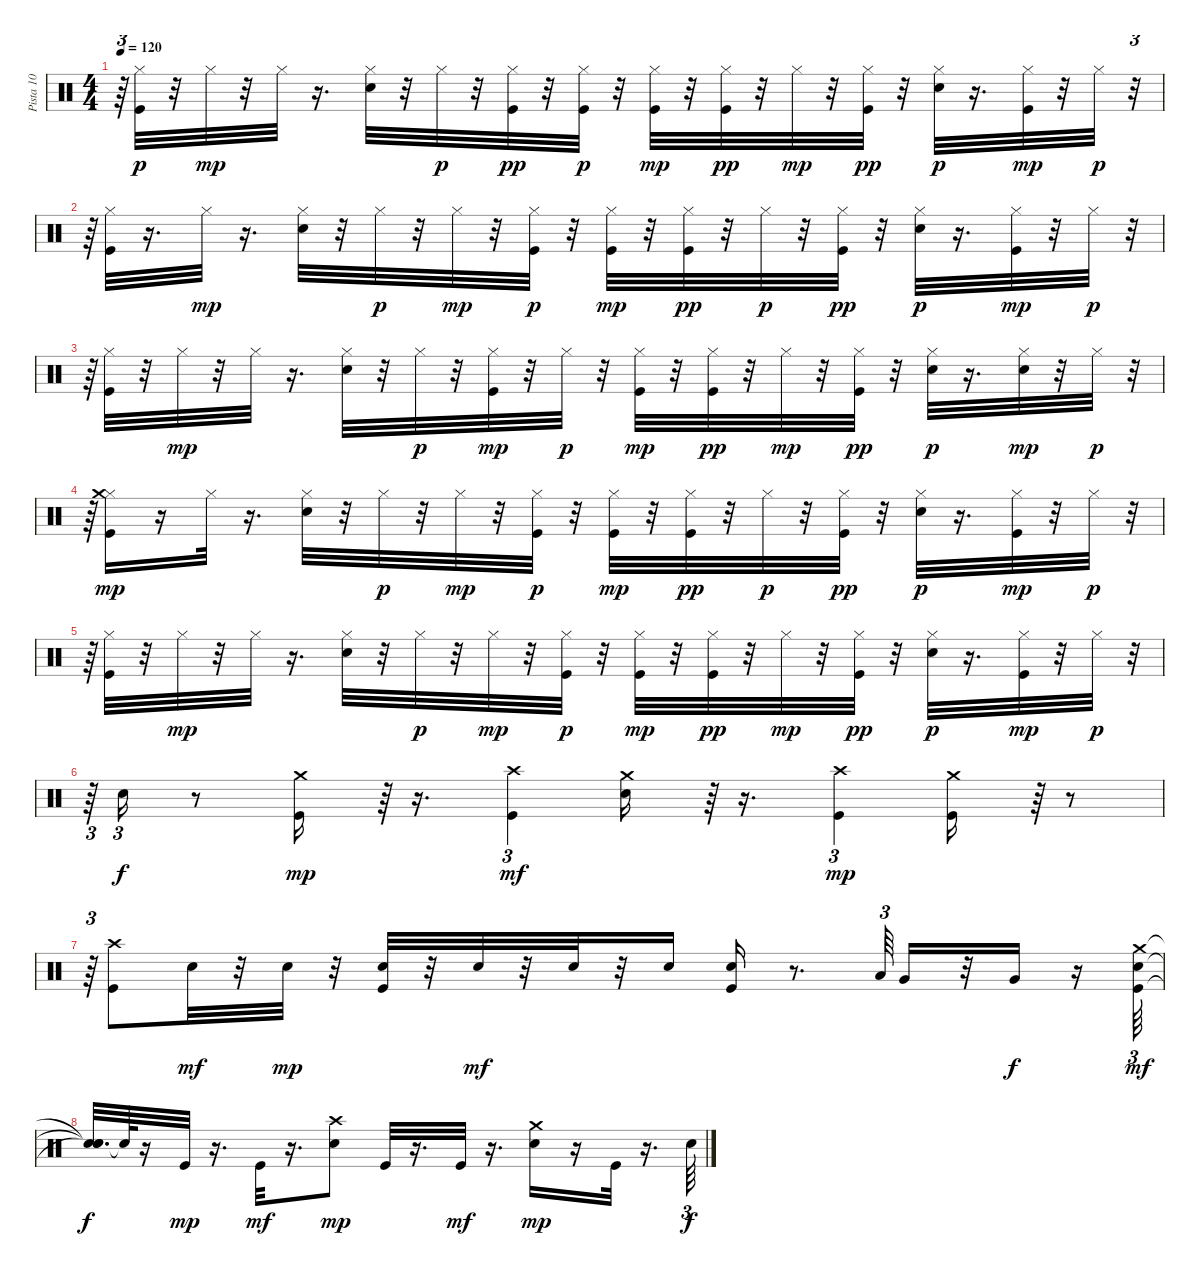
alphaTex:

\track ("Pista 10" "Pista 10") {instrument percussion}
\staff {score}
\articulation defaults
\ts (4 4)
\tempo 120
\clef neutral
\ks c
r.64{tu (3 2) dy p} ("Kick (hit)" "Hi-Hat (closed)").32 r.32 "Hi-Hat (closed)".32{dy mp} r.32 "Hi-Hat (closed)".32 r.16{d} ("Hi-Hat (closed)" "Snare (hit) 2").32 r.32 "Hi-Hat (closed)".32{dy p} r.32 ("Hi-Hat (closed)" "Kick (hit)").32{dy pp} r.32 ("Kick (hit)" "Hi-Hat (closed)").32{dy p} r.32 ("Kick (hit)" "Hi-Hat (closed)").32{dy mp} r.32 ("Hi-Hat (closed)" "Kick (hit)").32{dy pp} r.32 "Hi-Hat (closed)".32{dy mp} r.32 ("Hi-Hat (closed)" "Kick (hit)").32{dy pp} r.32 ("Snare (hit) 2" "Hi-Hat (closed)").32{dy p} r.16{d} ("Kick (hit)" "Hi-Hat (closed)").32{dy mp} r.32 "Hi-Hat (closed)".32{dy p} r.32{tu (3 2)} |
r.64{tu (3 2)} ("Kick (hit)" "Hi-Hat (closed)").32 r.16{d} "Hi-Hat (closed)".32{dy mp} r.16{d} ("Hi-Hat (closed)" "Snare (hit) 2").32 r.32 "Hi-Hat (closed)".32{dy p} r.32 "Hi-Hat (closed)".32{dy mp} r.32 ("Kick (hit)" "Hi-Hat (closed)").32{dy p} r.32 ("Kick (hit)" "Hi-Hat (closed)").32{dy mp} r.32 ("Hi-Hat (closed)" "Kick (hit)").32{dy pp} r.32 "Hi-Hat (closed)".32{dy p} r.32 ("Hi-Hat (closed)" "Kick (hit)").32{dy pp} r.32 ("Hi-Hat (closed)" "Snare (hit) 2").32{dy p} r.16{d} ("Hi-Hat (closed)" "Kick (hit)").32{dy mp} r.32 "Hi-Hat (closed)".32{dy p} r.32{tu (3 2)} |
r.64{tu (3 2)} ("Kick (hit)" "Hi-Hat (closed)").32 r.32 "Hi-Hat (closed)".32{dy mp} r.32 "Hi-Hat (closed)".32 r.16{d} ("Hi-Hat (closed)" "Snare (hit) 2").32 r.32 "Hi-Hat (closed)".32{dy p} r.32 ("Kick (hit)" "Hi-Hat (closed)").32{dy mp} r.32 "Hi-Hat (closed)".32{dy p} r.32 ("Kick (hit)" "Hi-Hat (closed)").32{dy mp} r.32 ("Kick (hit)" "Hi-Hat (closed)").32{dy pp} r.32 "Hi-Hat (closed)".32{dy mp} r.32 ("Kick (hit)" "Hi-Hat (closed)").32{dy pp} r.32 ("Hi-Hat (closed)" "Snare (hit) 2").32{dy p} r.16{d} ("Hi-Hat (closed)" "Snare (hit) 2").32{dy mp} r.32 "Hi-Hat (closed)".32{dy p} r.32{tu (3 2)} |
r.64{tu (3 2)} ("Kick (hit)" "Hi-Hat (closed)" "Crash medium (hit)").16{dy mp} r.16 "Hi-Hat (closed)".32 r.16{d} ("Hi-Hat (closed)" "Snare (hit) 2").32 r.32 "Hi-Hat (closed)".32{dy p} r.32 "Hi-Hat (closed)".32{dy mp} r.32 ("Kick (hit)" "Hi-Hat (closed)").32{dy p} r.32 ("Kick (hit)" "Hi-Hat (closed)").32{dy mp} r.32 ("Hi-Hat (closed)" "Kick (hit)").32{dy pp} r.32 "Hi-Hat (closed)".32{dy p} r.32 ("Hi-Hat (closed)" "Kick (hit)").32{dy pp} r.32 ("Hi-Hat (closed)" "Snare (hit) 2").32{dy p} r.16{d} ("Hi-Hat (closed)" "Kick (hit)").32{dy mp} r.32 "Hi-Hat (closed)".32{dy p} r.32{tu (3 2)} |
r.64{tu (3 2)} ("Kick (hit)" "Hi-Hat (closed)").32 r.32 "Hi-Hat (closed)".32{dy mp} r.32 "Hi-Hat (closed)".32 r.16{d} ("Hi-Hat (closed)" "Snare (hit) 2").32 r.32 "Hi-Hat (closed)".32{dy p} r.32 "Hi-Hat (closed)".32{dy mp} r.32 ("Kick (hit)" "Hi-Hat (closed)").32{dy p} r.32 ("Kick (hit)" "Hi-Hat (closed)").32{dy mp} r.32 ("Kick (hit)" "Hi-Hat (closed)").32{dy pp} r.32 "Hi-Hat (closed)".32{dy mp} r.32 ("Kick (hit)" "Hi-Hat (closed)").32{dy pp} r.32 ("Hi-Hat (closed)" "Snare (hit) 2").32{dy p} r.16{d} ("Hi-Hat (closed)" "Kick (hit)").32{dy mp} r.32 "Hi-Hat (closed)".32{dy p} r.32{tu (3 2)} |
r.64{tu (3 2)} "Snare (hit) 2".16{tu (3 2) dy f} r.8 ("Kick (hit)" "Crash medium (hit)").16{dy mp} r.64{tu (3 2)} r.16{d} ("Kick (hit)" "Crash high (hit)").4{tu (3 2) dy mf} ("Crash medium (hit)" "Snare (hit) 2").16 r.64{tu (3 2)} r.16{d} ("Kick (hit)" "Crash high (hit)").4{tu (3 2) dy mp} ("Kick (hit)" "Crash medium (hit)").16 r.64{tu (3 2)} r.8{tu (3 2)} |
r.64{tu (3 2)} ("Kick (hit)" "Crash high (hit)").8 "Snare (hit) 2".32{dy mf} r.32 "Snare (hit) 2".32{dy mp} r.32 ("Kick (hit)" "Snare (hit) 2").32 r.32 "Snare (hit) 2".32{dy mf} r.32 "Snare (hit) 2".32 r.32 "Snare (hit) 2".16 ("Kick (hit)" "Snare (hit) 2").16 r.8{d} "Low Floor Tom (hit)".64{tu (3 2)} "Very Low Tom (hit)".16 r.32 "Very Low Tom (hit)".16{dy f} r.16 ("Kick (hit)" "Crash medium (hit)" "Snare (hit) 2").64{tu (3 2) dy mf} |
("Snare (hit)"{t} "Snare (hit)"{t} "Snare (hit)"{t}).32{d dy f} "Snare (hit)"{t}.64 r.16 "Kick (hit)".32{dy mp} r.16{d} "Kick (hit)".32{dy mf} r.16{d} ("Crash high (hit)" "Snare (hit) 2").8{dy mp} "Kick (hit)".32 r.16{d} "Kick (hit)".32{dy mf} r.16{d} ("Crash medium (hit)" "Snare (hit) 2").16{dy mp} r.16 "Kick (hit)".32 r.16{d} "Snare (hit) 2".64{tu (3 2) dy f}
